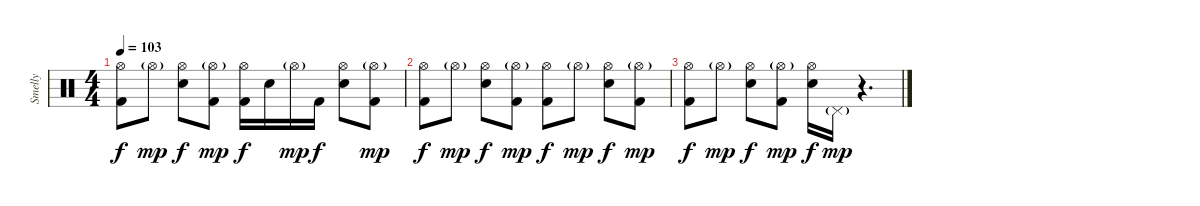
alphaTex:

\track ("Smelly" "Smelly") {instrument percussion}
\staff {score}
\articulation defaults
\ts (4 4)
\tempo 103
\clef neutral
\ks c
("Hi-Hat (open)" "Kick (hit) 2").8{dy f} "Hi-Hat (open)"{g}.8{dy mp} ("Hi-Hat (open)" "Electric Snare (hit)").8{dy f} ("Hi-Hat (open)"{g} "Kick (hit) 2").8{dy mp} ("Hi-Hat (open)" "Kick (hit) 2").16{dy f} "Electric Snare (hit)".16 "Hi-Hat (open)"{g}.16{dy mp} "Kick (hit) 2".16{dy f} ("Hi-Hat (open)" "Electric Snare (hit)").8 ("Hi-Hat (open)"{g} "Kick (hit) 2").8{dy mp} |
("Hi-Hat (open)" "Kick (hit) 2").8{dy f} "Hi-Hat (open)"{g}.8{dy mp} ("Hi-Hat (open)" "Electric Snare (hit)").8{dy f} ("Hi-Hat (open)"{g} "Kick (hit) 2").8{dy mp} ("Hi-Hat (open)" "Kick (hit) 2").8{dy f} "Hi-Hat (open)"{g}.8{dy mp} ("Hi-Hat (open)" "Electric Snare (hit)").8{dy f} ("Hi-Hat (open)"{g} "Kick (hit) 2").8{dy mp} |
("Hi-Hat (open)" "Kick (hit) 2").8{dy f} "Hi-Hat (open)"{g}.8{dy mp} ("Hi-Hat (open)" "Electric Snare (hit)").8{dy f} ("Hi-Hat (open)"{g} "Kick (hit) 2").8{dy mp} ("Hi-Hat (open)" "Electric Snare (hit)").16{dy f} "Pedal Hi-Hat (hit)"{g}.16{dy mp} r.4{d}
